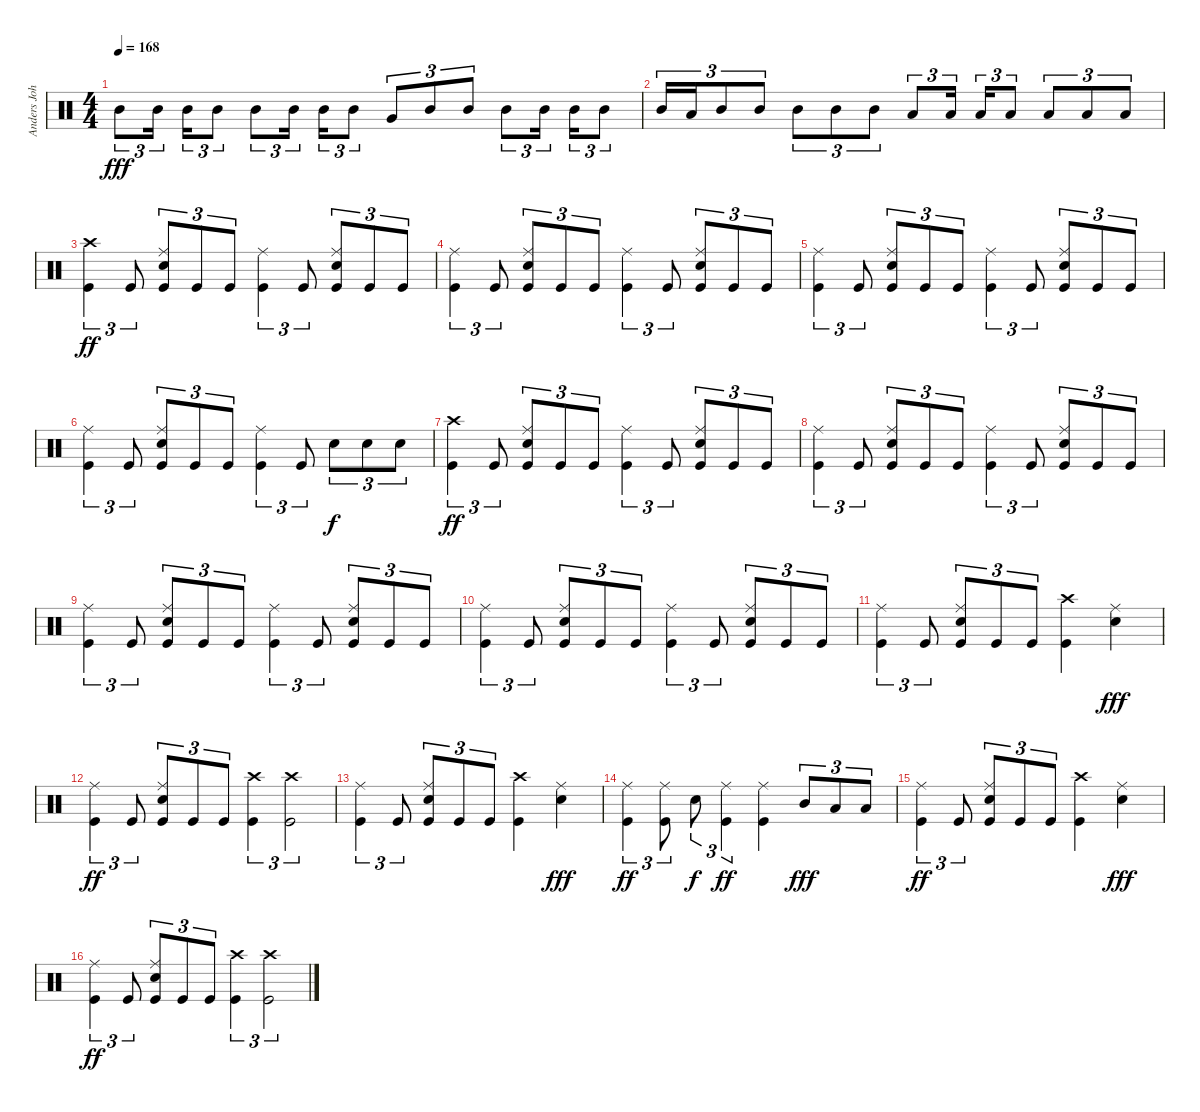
\track ("Anders Johansson (Drums)" "Anders Joh") {instrument percussion}
\staff {score}
\articulation defaults
\ts (4 4)
\tempo 168
\clef neutral
\ks c "Mid Tom (hit)".8{tu (3 2) dy fff} "Mid Tom (hit)".16{tu (3 2) beam splitsecondary} "Mid Tom (hit)".16{tu (3 2)} "Mid Tom (hit)".8{tu (3 2)} "Mid Tom (hit)".8{tu (3 2)} "Mid Tom (hit)".16{tu (3 2) beam splitsecondary} "Mid Tom (hit)".16{tu (3 2)} "Mid Tom (hit)".8{tu (3 2)} "Very Low Tom (hit)".8{tu (3 2)} "Mid Tom (hit)".8{tu (3 2)} "Mid Tom (hit)".8{tu (3 2)} "Mid Tom (hit)".8{tu (3 2)} "Mid Tom (hit)".16{tu (3 2) beam splitsecondary} "Mid Tom (hit)".16{tu (3 2)} "Mid Tom (hit)".8{tu (3 2)}
|
"Mid Tom (hit)".16{tu (3 2)} "Low Tom (hit)".16{tu (3 2)} "Mid Tom (hit)".8{tu (3 2)} "Mid Tom (hit)".8{tu (3 2)} "Mid Tom (hit)".8{tu (3 2)} "Mid Tom (hit)".8{tu (3 2)} "Mid Tom (hit)".8{tu (3 2)} "Low Tom (hit)".8{tu (3 2)} "Low Tom (hit)".16{tu (3 2) beam splitsecondary} "Low Tom (hit)".16{tu (3 2)} "Low Tom (hit)".8{tu (3 2)} "Low Tom (hit)".8{tu (3 2)} "Low Tom (hit)".8{tu (3 2)} "Low Tom (hit)".8{tu (3 2)} |
("Crash high (hit)" "Kick (hit)").4{tu (3 2) dy ff} "Kick (hit)".8{tu (3 2)} ("Ride (middle)" "Electric Snare (hit)" "Kick (hit)").8{tu (3 2)} "Kick (hit)".8{tu (3 2)} "Kick (hit)".8{tu (3 2)} ("Ride (middle)" "Kick (hit)").4{tu (3 2)} "Kick (hit)".8{tu (3 2)} ("Ride (middle)" "Electric Snare (hit)" "Kick (hit)").8{tu (3 2)} "Kick (hit)".8{tu (3 2)} "Kick (hit)".8{tu (3 2)} |
("Ride (middle)" "Kick (hit)").4{tu (3 2)} "Kick (hit)".8{tu (3 2)} ("Ride (middle)" "Electric Snare (hit)" "Kick (hit)").8{tu (3 2)} "Kick (hit)".8{tu (3 2)} "Kick (hit)".8{tu (3 2)} ("Ride (middle)" "Kick (hit)").4{tu (3 2)} "Kick (hit)".8{tu (3 2)} ("Ride (middle)" "Electric Snare (hit)" "Kick (hit)").8{tu (3 2)} "Kick (hit)".8{tu (3 2)} "Kick (hit)".8{tu (3 2)} |
("Ride (middle)" "Kick (hit)").4{tu (3 2)} "Kick (hit)".8{tu (3 2)} ("Ride (middle)" "Electric Snare (hit)" "Kick (hit)").8{tu (3 2)} "Kick (hit)".8{tu (3 2)} "Kick (hit)".8{tu (3 2)} ("Ride (middle)" "Kick (hit)").4{tu (3 2)} "Kick (hit)".8{tu (3 2)} ("Ride (middle)" "Electric Snare (hit)" "Kick (hit)").8{tu (3 2)} "Kick (hit)".8{tu (3 2)} "Kick (hit)".8{tu (3 2)} |
("Ride (middle)" "Kick (hit)").4{tu (3 2)} "Kick (hit)".8{tu (3 2)} ("Ride (middle)" "Electric Snare (hit)" "Kick (hit)").8{tu (3 2)} "Kick (hit)".8{tu (3 2)} "Kick (hit)".8{tu (3 2)} ("Ride (middle)" "Kick (hit)").4{tu (3 2)} "Kick (hit)".8{tu (3 2)} "Electric Snare (hit)".8{tu (3 2) dy f} "Electric Snare (hit)".8{tu (3 2)} "Electric Snare (hit)".8{tu (3 2)} |
("Crash high (hit)" "Kick (hit)").4{tu (3 2) dy ff} "Kick (hit)".8{tu (3 2)} ("Ride (middle)" "Electric Snare (hit)" "Kick (hit)").8{tu (3 2)} "Kick (hit)".8{tu (3 2)} "Kick (hit)".8{tu (3 2)} ("Ride (middle)" "Kick (hit)").4{tu (3 2)} "Kick (hit)".8{tu (3 2)} ("Ride (middle)" "Electric Snare (hit)" "Kick (hit)").8{tu (3 2)} "Kick (hit)".8{tu (3 2)} "Kick (hit)".8{tu (3 2)} |
("Ride (middle)" "Kick (hit)").4{tu (3 2)} "Kick (hit)".8{tu (3 2)} ("Ride (middle)" "Electric Snare (hit)" "Kick (hit)").8{tu (3 2)} "Kick (hit)".8{tu (3 2)} "Kick (hit)".8{tu (3 2)} ("Ride (middle)" "Kick (hit)").4{tu (3 2)} "Kick (hit)".8{tu (3 2)} ("Ride (middle)" "Electric Snare (hit)" "Kick (hit)").8{tu (3 2)} "Kick (hit)".8{tu (3 2)} "Kick (hit)".8{tu (3 2)} |
("Ride (middle)" "Kick (hit)").4{tu (3 2)} "Kick (hit)".8{tu (3 2)} ("Ride (middle)" "Electric Snare (hit)" "Kick (hit)").8{tu (3 2)} "Kick (hit)".8{tu (3 2)} "Kick (hit)".8{tu (3 2)} ("Ride (middle)" "Kick (hit)").4{tu (3 2)} "Kick (hit)".8{tu (3 2)} ("Ride (middle)" "Electric Snare (hit)" "Kick (hit)").8{tu (3 2)} "Kick (hit)".8{tu (3 2)} "Kick (hit)".8{tu (3 2)} |
("Ride (middle)" "Kick (hit)").4{tu (3 2)} "Kick (hit)".8{tu (3 2)} ("Ride (middle)" "Electric Snare (hit)" "Kick (hit)").8{tu (3 2)} "Kick (hit)".8{tu (3 2)} "Kick (hit)".8{tu (3 2)} ("Ride (middle)" "Kick (hit)").4{tu (3 2)} "Kick (hit)".8{tu (3 2)} ("Ride (middle)" "Electric Snare (hit)" "Kick (hit)").8{tu (3 2)} "Kick (hit)".8{tu (3 2)} "Kick (hit)".8{tu (3 2)} |
("Ride (middle)" "Kick (hit)").4{tu (3 2)} "Kick (hit)".8{tu (3 2)} ("Ride (middle)" "Electric Snare (hit)" "Kick (hit)").8{tu (3 2)} "Kick (hit)".8{tu (3 2)} "Kick (hit)".8{tu (3 2)} ("Crash high (hit)" "Kick (hit)").4 ("Ride (middle)" "Electric Snare (hit)").4{dy fff} |
("Ride (middle)" "Kick (hit)").4{tu (3 2) dy ff} "Kick (hit)".8{tu (3 2)} ("Ride (middle)" "Electric Snare (hit)" "Kick (hit)").8{tu (3 2)} "Kick (hit)".8{tu (3 2)} "Kick (hit)".8{tu (3 2)} ("Crash high (hit)" "Kick (hit)").4{tu (3 2)} ("Crash high (hit)" "Kick (hit)").2{tu (3 2)} |
("Ride (middle)" "Kick (hit)").4{tu (3 2)} "Kick (hit)".8{tu (3 2)} ("Ride (middle)" "Electric Snare (hit)" "Kick (hit)").8{tu (3 2)} "Kick (hit)".8{tu (3 2)} "Kick (hit)".8{tu (3 2)} ("Crash high (hit)" "Kick (hit)").4 ("Ride (middle)" "Electric Snare (hit)").4{dy fff} |
("Ride (middle)" "Kick (hit)").4{tu (3 2) dy ff} ("Ride (middle)" "Kick (hit)").8{tu (3 2)} "Electric Snare (hit)".8{tu (3 2) dy f} ("Ride (middle)" "Kick (hit)").4{tu (3 2) dy ff} ("Ride (middle)" "Kick (hit)").4 "Mid Tom (hit)".8{tu (3 2) dy fff} "Low Tom (hit)".8{tu (3 2)} "Low Tom (hit)".8{tu (3 2)} |
("Ride (middle)" "Kick (hit)").4{tu (3 2) dy ff} "Kick (hit)".8{tu (3 2)} ("Ride (middle)" "Electric Snare (hit)" "Kick (hit)").8{tu (3 2)} "Kick (hit)".8{tu (3 2)} "Kick (hit)".8{tu (3 2)} ("Crash high (hit)" "Kick (hit)").4 ("Ride (middle)" "Electric Snare (hit)").4{dy fff} |
("Ride (middle)" "Kick (hit)").4{tu (3 2) dy ff} "Kick (hit)".8{tu (3 2)} ("Ride (middle)" "Electric Snare (hit)" "Kick (hit)").8{tu (3 2)} "Kick (hit)".8{tu (3 2)} "Kick (hit)".8{tu (3 2)} ("Crash high (hit)" "Kick (hit)").4{tu (3 2)} ("Crash high (hit)" "Kick (hit)").2{tu (3 2)}
